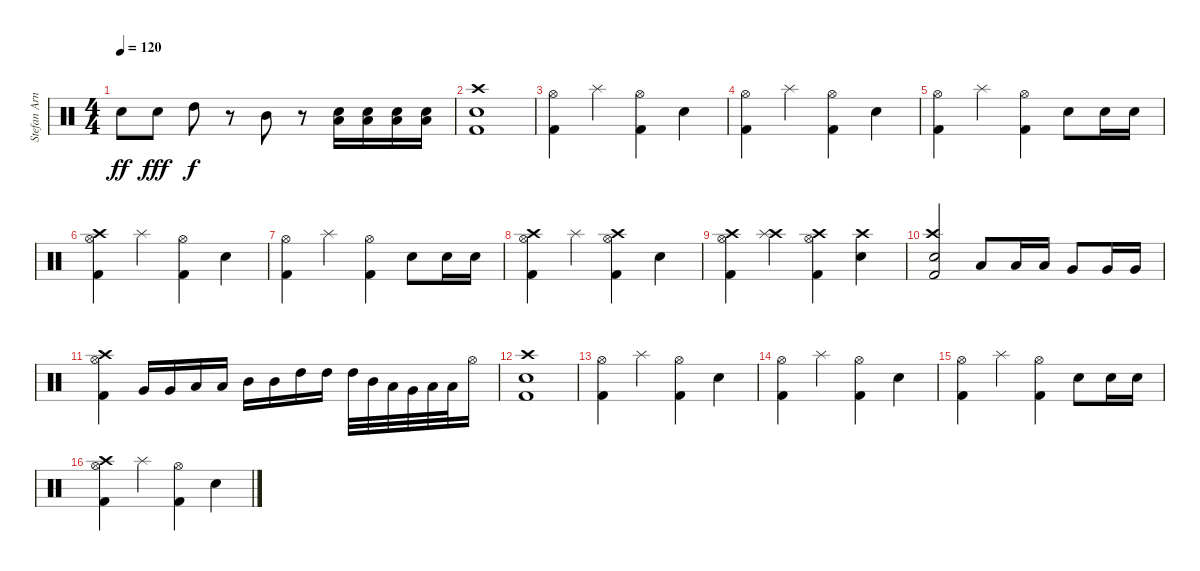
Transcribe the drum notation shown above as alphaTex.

\track ("Stefan Arnold Drums" "Stefan Arn") {instrument percussion}
\staff {score}
\articulation defaults
\ts (4 4)
\tempo 120
\clef neutral
\ks c "Electric Snare (hit)".8{dy ff} "Electric Snare (hit)".8{dy fff} "High Tom (hit)".8{dy f}
r.8 "Mid Tom (hit)".8 r.8 ("Low Tom (hit)" "Snare (hit) 2").16 ("Low Tom (hit)" "Snare (hit) 2").16 ("Low Tom (hit)" "Snare (hit) 2").16 ("Low Tom (hit)" "Snare (hit) 2").16 |
("Crash high (hit)" "Kick (hit) 2" "Electric Snare (hit)").1 |
("Hi-Hat (open)" "Kick (hit) 2").4 "Splash (hit)".4 ("Hi-Hat (open)" "Kick (hit) 2").4 "Electric Snare (hit)".4 |
("Hi-Hat (open)" "Kick (hit) 2").4 "Splash (hit)".4 ("Hi-Hat (open)" "Kick (hit) 2").4 "Electric Snare (hit)".4 |
("Hi-Hat (open)" "Kick (hit) 2").4 "Splash (hit)".4 ("Hi-Hat (open)" "Kick (hit) 2").4 "Electric Snare (hit)".8 "Snare (hit) 2".16 "Snare (hit) 2".16 |
("Crash high (hit)" "Hi-Hat (open)" "Kick (hit) 2").4 "Splash (hit)".4 ("Hi-Hat (open)" "Kick (hit) 2").4 "Electric Snare (hit)".4 |
("Hi-Hat (open)" "Kick (hit) 2").4 "Splash (hit)".4 ("Hi-Hat (open)" "Kick (hit) 2").4 "Electric Snare (hit)".8 "Snare (hit) 2".16 "Snare (hit) 2".16 |
("Crash high (hit)" "Hi-Hat (open)" "Kick (hit) 2").4 "Splash (hit)".4 ("Crash high (hit)" "Hi-Hat (open)" "Kick (hit) 2").4 "Electric Snare (hit)".4 |
("Crash high (hit)" "Hi-Hat (open)" "Kick (hit) 2").4 ("Crash high (hit)" "Splash (hit)").4 ("Crash high (hit)" "Hi-Hat (open)" "Kick (hit) 2").4 ("Crash high (hit)" "Electric Snare (hit)").4 |
("Crash high (hit)" "Kick (hit) 2" "Electric Snare (hit)").2 "Low Tom (hit)".8 "Low Tom (hit)".16 "Low Tom (hit)".16 "Very Low Tom (hit)".8 "Very Low Tom (hit)".16 "Very Low Tom (hit)".16 |
("Crash high (hit)" "Hi-Hat (open)" "Kick (hit) 2").4 "Very Low Tom (hit)".16 "Very Low Tom (hit)".16 "Low Tom (hit)".16 "Low Tom (hit)".16 "Mid Tom (hit)".16 "Mid Tom (hit)".16 "High Tom (hit)".16 "High Tom (hit)".16 "High Tom (hit)".32 "Mid Tom (hit)".32 "Low Tom (hit)".32 "Very Low Tom (hit)".32 "Low Floor Tom (hit)".32 "Low Floor Tom (hit)".32 "Hi-Hat (open)".16 |
("Crash high (hit)" "Kick (hit) 2" "Electric Snare (hit)").1 |
("Hi-Hat (open)" "Kick (hit) 2").4 "Splash (hit)".4 ("Hi-Hat (open)" "Kick (hit) 2").4 "Electric Snare (hit)".4 |
("Hi-Hat (open)" "Kick (hit) 2").4 "Splash (hit)".4 ("Hi-Hat (open)" "Kick (hit) 2").4 "Electric Snare (hit)".4 |
("Hi-Hat (open)" "Kick (hit) 2").4 "Splash (hit)".4 ("Hi-Hat (open)" "Kick (hit) 2").4 "Electric Snare (hit)".8 "Snare (hit) 2".16 "Snare (hit) 2".16 |
("Crash high (hit)" "Hi-Hat (open)" "Kick (hit) 2").4 "Splash (hit)".4 ("Hi-Hat (open)" "Kick (hit) 2").4 "Electric Snare (hit)".4
